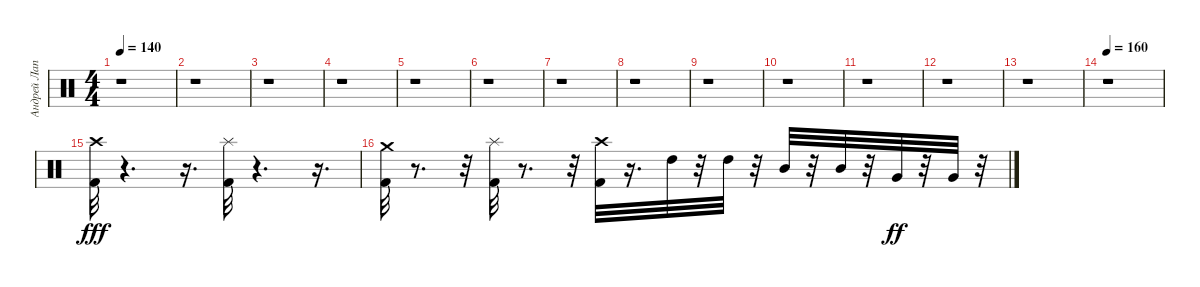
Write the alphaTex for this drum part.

\track ("Андрей Лаптев" "Андрей Лап") {instrument percussion}
\staff {score}
\articulation defaults
\ts (4 4)
\tempo 140
\clef neutral
\ks c
r.1{dy fff} |
r.1 |
r.1 |
r.1 |
r.1 |
r.1 |
r.1 |
r.1 |
r.1 |
r.1 |
r.1 |
r.1 |
r.1 |
\tempo 160
r.1 |
("Kick (hit) 2" "Crash high (hit)").32 r.4{d} r.16{d} ("Splash (hit)" "Kick (hit) 2").32 r.4{d} r.16{d} |
("Kick (hit) 2" "Crash medium (hit)").32 r.8{d} r.32 ("Splash (hit)" "Kick (hit) 2").32 r.8{d} r.32 ("Kick (hit) 2" "Crash high (hit)").32 r.16{d} "High Tom (hit)".32 r.32 "High Tom (hit)".32 r.32 "Mid Tom (hit)".32 r.32 "Mid Tom (hit)".32 r.32 "Very Low Tom (hit)".32{dy ff} r.32 "Very Low Tom (hit)".32 r.32
